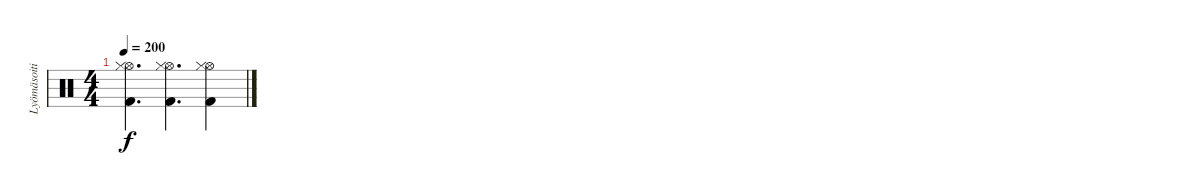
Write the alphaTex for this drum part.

\track ("Lyömäsoitin" "Lyömäsoiti") {instrument percussion}
\staff {score}
\articulation defaults
\ts (4 4)
\tempo 200
\clef neutral
\ks c
("Hi-Hat (open)" "Hi-Hat (closed)" "Kick (hit) 2").4{d dy f} ("Hi-Hat (open)" "Hi-Hat (closed)" "Kick (hit) 2").4{d} ("Hi-Hat (open)" "Hi-Hat (closed)" "Kick (hit) 2").4
